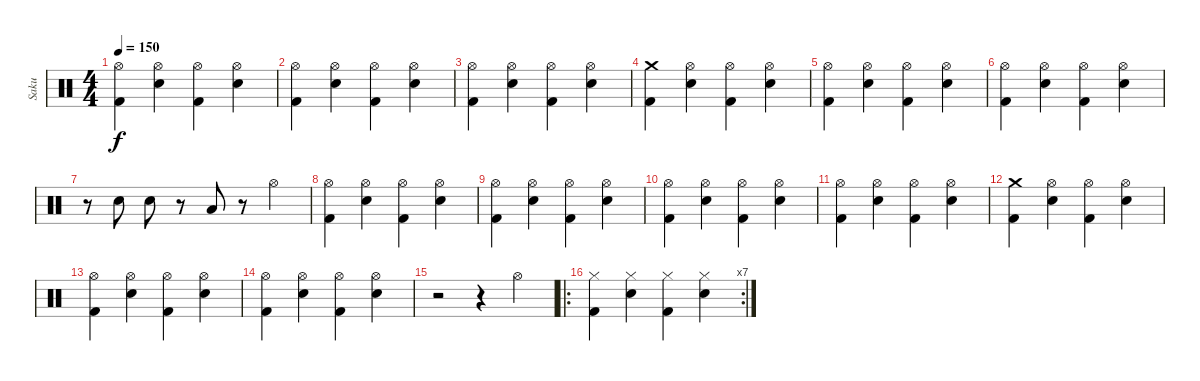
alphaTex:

\track ("Saku" "Saku") {instrument percussion}
\staff {score}
\articulation defaults
\ts (4 4)
\tempo 150
\clef neutral
\ks c
("Hi-Hat (open)" "Kick (hit) 2").4{dy f} ("Hi-Hat (open)" "Electric Snare (hit)").4 ("Hi-Hat (open)" "Kick (hit) 2").4 ("Hi-Hat (open)" "Electric Snare (hit)").4 |
("Hi-Hat (open)" "Kick (hit) 2").4 ("Hi-Hat (open)" "Electric Snare (hit)").4 ("Hi-Hat (open)" "Kick (hit) 2").4 ("Hi-Hat (open)" "Electric Snare (hit)").4 |
("Hi-Hat (open)" "Kick (hit) 2").4 ("Hi-Hat (open)" "Electric Snare (hit)").4 ("Hi-Hat (open)" "Kick (hit) 2").4 ("Hi-Hat (open)" "Electric Snare (hit)").4 |
("Crash medium (hit)" "Kick (hit) 2").4 ("Hi-Hat (open)" "Electric Snare (hit)").4 ("Hi-Hat (open)" "Kick (hit) 2").4 ("Hi-Hat (open)" "Electric Snare (hit)").4 |
("Hi-Hat (open)" "Kick (hit) 2").4 ("Hi-Hat (open)" "Electric Snare (hit)").4 ("Hi-Hat (open)" "Kick (hit) 2").4 ("Hi-Hat (open)" "Electric Snare (hit)").4 |
("Hi-Hat (open)" "Kick (hit) 2").4 ("Hi-Hat (open)" "Electric Snare (hit)").4 ("Hi-Hat (open)" "Kick (hit) 2").4 ("Hi-Hat (open)" "Electric Snare (hit)").4 |
r.8 "Electric Snare (hit)".8 "Electric Snare (hit)".8 r.8 "Low Tom (hit)".8 r.8 "Hi-Hat (open)".4 |
("Hi-Hat (open)" "Kick (hit) 2").4 ("Hi-Hat (open)" "Electric Snare (hit)").4 ("Hi-Hat (open)" "Kick (hit) 2").4 ("Hi-Hat (open)" "Electric Snare (hit)").4 |
("Hi-Hat (open)" "Kick (hit) 2").4 ("Hi-Hat (open)" "Electric Snare (hit)").4 ("Hi-Hat (open)" "Kick (hit) 2").4 ("Hi-Hat (open)" "Electric Snare (hit)").4 |
("Hi-Hat (open)" "Kick (hit) 2").4 ("Hi-Hat (open)" "Electric Snare (hit)").4 ("Hi-Hat (open)" "Kick (hit) 2").4 ("Hi-Hat (open)" "Electric Snare (hit)").4 |
("Hi-Hat (open)" "Kick (hit) 2").4 ("Hi-Hat (open)" "Electric Snare (hit)").4 ("Hi-Hat (open)" "Kick (hit) 2").4 ("Hi-Hat (open)" "Electric Snare (hit)").4 |
("Crash medium (hit)" "Kick (hit) 2").4 ("Hi-Hat (open)" "Electric Snare (hit)").4 ("Hi-Hat (open)" "Kick (hit) 2").4 ("Hi-Hat (open)" "Electric Snare (hit)").4 |
("Hi-Hat (open)" "Kick (hit) 2").4 ("Hi-Hat (open)" "Electric Snare (hit)").4 ("Hi-Hat (open)" "Kick (hit) 2").4 ("Hi-Hat (open)" "Electric Snare (hit)").4 |
("Hi-Hat (open)" "Kick (hit) 2").4 ("Hi-Hat (open)" "Electric Snare (hit)").4 ("Hi-Hat (open)" "Kick (hit) 2").4 ("Hi-Hat (open)" "Electric Snare (hit)").4 |
r.2 r.4 "Hi-Hat (open)".4 |
\ro
\rc 7
("Hi-Hat (closed)" "Kick (hit) 2").4 ("Hi-Hat (closed)" "Electric Snare (hit)").4 ("Hi-Hat (closed)" "Kick (hit) 2").4 ("Hi-Hat (closed)" "Electric Snare (hit)").4
